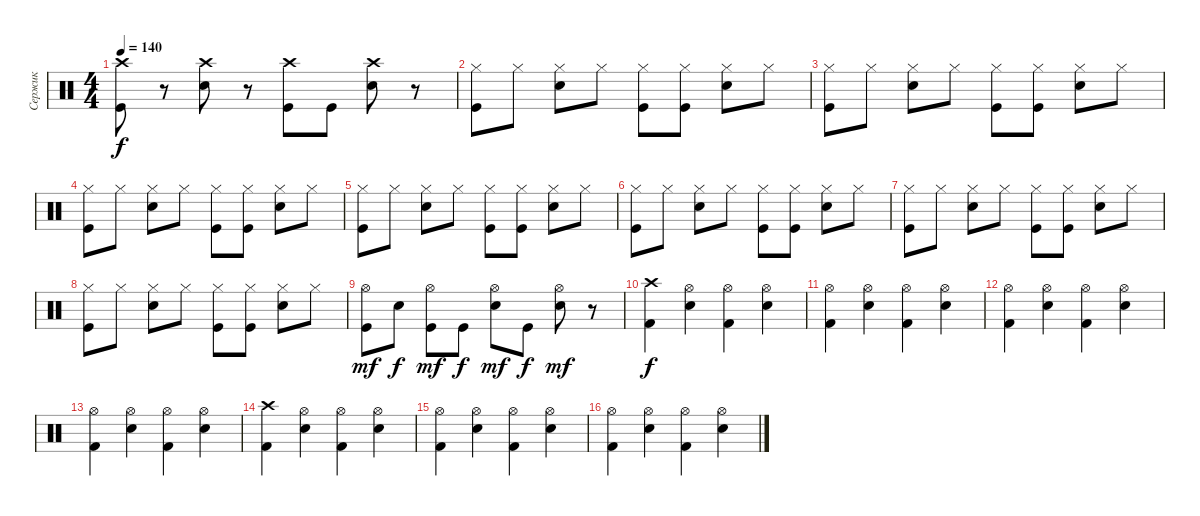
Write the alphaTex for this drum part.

\track ("Сержик" "Сержик") {instrument percussion}
\staff {score}
\articulation defaults
\ts (4 4)
\tempo 140
\clef neutral
\ks c
("Crash high (hit)" "Kick (hit)").8{dy f} r.8 ("Crash high (hit)" "Electric Snare (hit)").8 r.8 ("Crash high (hit)" "Kick (hit)").8 "Kick (hit)".8 ("Crash high (hit)" "Electric Snare (hit)").8 r.8 |
("Hi-Hat (closed)" "Kick (hit)").8 "Hi-Hat (closed)".8 ("Hi-Hat (closed)" "Electric Snare (hit)").8 "Hi-Hat (closed)".8 ("Hi-Hat (closed)" "Kick (hit)").8 ("Hi-Hat (closed)" "Kick (hit)").8 ("Hi-Hat (closed)" "Electric Snare (hit)").8 "Hi-Hat (closed)".8 |
("Hi-Hat (closed)" "Kick (hit)").8 "Hi-Hat (closed)".8 ("Hi-Hat (closed)" "Electric Snare (hit)").8 "Hi-Hat (closed)".8 ("Hi-Hat (closed)" "Kick (hit)").8 ("Hi-Hat (closed)" "Kick (hit)").8 ("Hi-Hat (closed)" "Electric Snare (hit)").8 "Hi-Hat (closed)".8 |
("Hi-Hat (closed)" "Kick (hit)").8 "Hi-Hat (closed)".8 ("Hi-Hat (closed)" "Electric Snare (hit)").8 "Hi-Hat (closed)".8 ("Hi-Hat (closed)" "Kick (hit)").8 ("Hi-Hat (closed)" "Kick (hit)").8 ("Hi-Hat (closed)" "Electric Snare (hit)").8 "Hi-Hat (closed)".8 |
("Hi-Hat (closed)" "Kick (hit)").8 "Hi-Hat (closed)".8 ("Hi-Hat (closed)" "Electric Snare (hit)").8 "Hi-Hat (closed)".8 ("Hi-Hat (closed)" "Kick (hit)").8 ("Hi-Hat (closed)" "Kick (hit)").8 ("Hi-Hat (closed)" "Electric Snare (hit)").8 "Hi-Hat (closed)".8 |
("Hi-Hat (closed)" "Kick (hit)").8 "Hi-Hat (closed)".8 ("Hi-Hat (closed)" "Electric Snare (hit)").8 "Hi-Hat (closed)".8 ("Hi-Hat (closed)" "Kick (hit)").8 ("Hi-Hat (closed)" "Kick (hit)").8 ("Hi-Hat (closed)" "Electric Snare (hit)").8 "Hi-Hat (closed)".8 |
("Hi-Hat (closed)" "Kick (hit)").8 "Hi-Hat (closed)".8 ("Hi-Hat (closed)" "Electric Snare (hit)").8 "Hi-Hat (closed)".8 ("Hi-Hat (closed)" "Kick (hit)").8 ("Hi-Hat (closed)" "Kick (hit)").8 ("Hi-Hat (closed)" "Electric Snare (hit)").8 "Hi-Hat (closed)".8 |
("Hi-Hat (closed)" "Kick (hit)").8 "Hi-Hat (closed)".8 ("Hi-Hat (closed)" "Electric Snare (hit)").8 "Hi-Hat (closed)".8 ("Hi-Hat (closed)" "Kick (hit)").8 ("Hi-Hat (closed)" "Kick (hit)").8 ("Hi-Hat (closed)" "Electric Snare (hit)").8 "Hi-Hat (closed)".8 |
("Hi-Hat (open)" "Kick (hit)").8{dy mf} "Electric Snare (hit)".8{dy f} ("Hi-Hat (open)" "Kick (hit)").8{dy mf} "Kick (hit)".8{dy f} ("Hi-Hat (open)" "Electric Snare (hit)").8{dy mf} "Kick (hit)".8{dy f} ("Hi-Hat (open)" "Electric Snare (hit)").8{dy mf} r.8 |
("Crash high (hit)" "Kick (hit) 2").4{dy f} ("Hi-Hat (open)" "Electric Snare (hit)").4 ("Hi-Hat (open)" "Kick (hit) 2").4 ("Hi-Hat (open)" "Electric Snare (hit)").4 |
("Hi-Hat (open)" "Kick (hit) 2").4 ("Hi-Hat (open)" "Electric Snare (hit)").4 ("Hi-Hat (open)" "Kick (hit) 2").4 ("Hi-Hat (open)" "Electric Snare (hit)").4 |
("Hi-Hat (open)" "Kick (hit) 2").4 ("Hi-Hat (open)" "Electric Snare (hit)").4 ("Hi-Hat (open)" "Kick (hit) 2").4 ("Hi-Hat (open)" "Electric Snare (hit)").4 |
("Hi-Hat (open)" "Kick (hit) 2").4 ("Hi-Hat (open)" "Electric Snare (hit)").4 ("Hi-Hat (open)" "Kick (hit) 2").4 ("Hi-Hat (open)" "Electric Snare (hit)").4 |
("Crash high (hit)" "Kick (hit) 2").4 ("Hi-Hat (open)" "Electric Snare (hit)").4 ("Hi-Hat (open)" "Kick (hit) 2").4 ("Hi-Hat (open)" "Electric Snare (hit)").4 |
("Hi-Hat (open)" "Kick (hit) 2").4 ("Hi-Hat (open)" "Electric Snare (hit)").4 ("Hi-Hat (open)" "Kick (hit) 2").4 ("Hi-Hat (open)" "Electric Snare (hit)").4 |
("Hi-Hat (open)" "Kick (hit) 2").4 ("Hi-Hat (open)" "Electric Snare (hit)").4 ("Hi-Hat (open)" "Kick (hit) 2").4 ("Hi-Hat (open)" "Electric Snare (hit)").4
